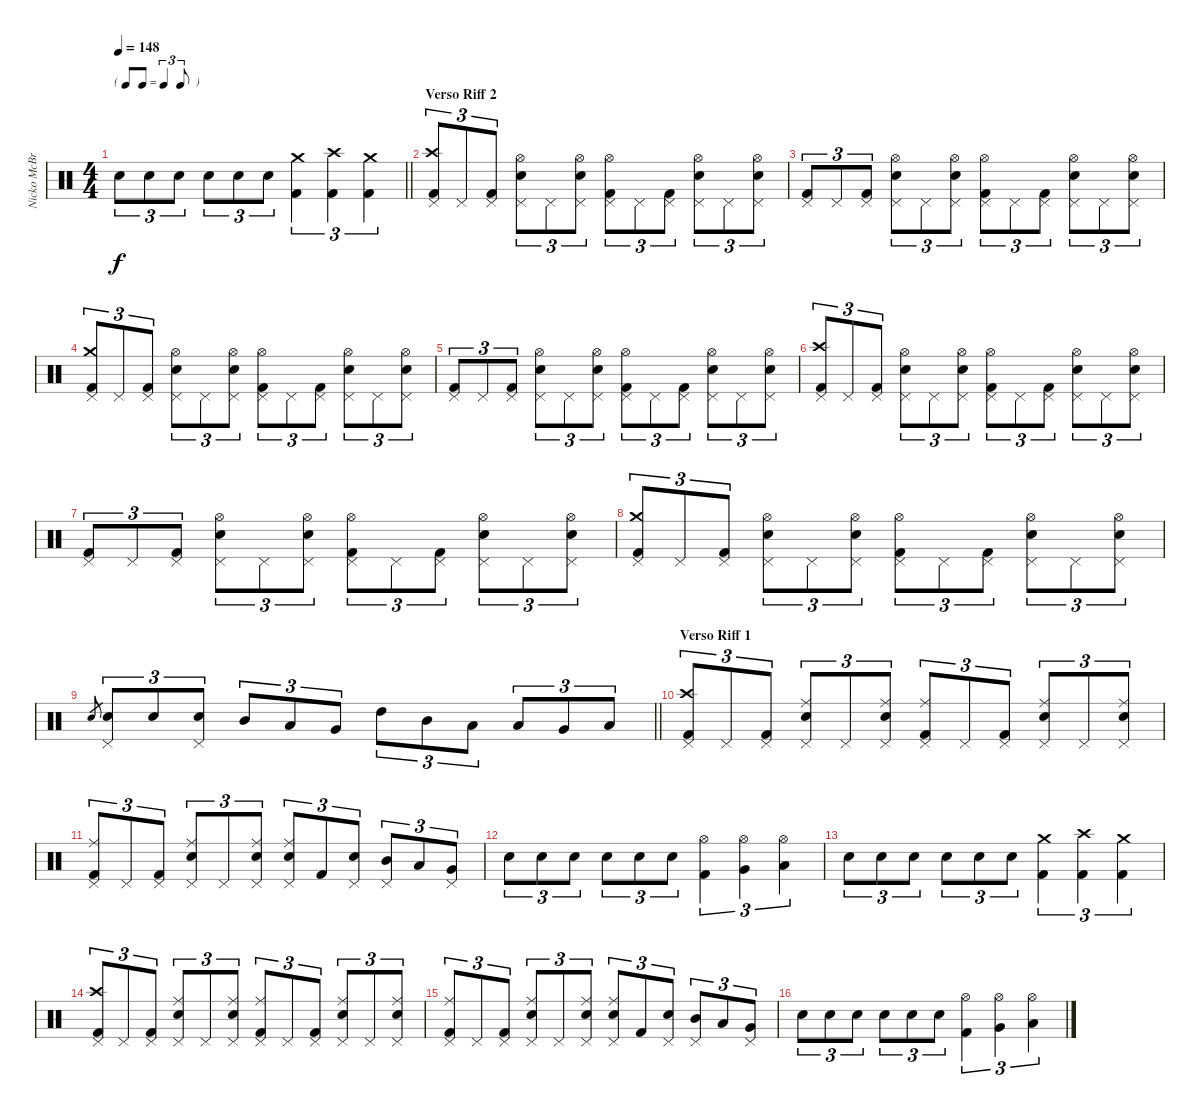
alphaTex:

\track ("Nicko McBrain" "Nicko McBr") {instrument percussion}
\staff {score}
\articulation defaults
\ts (4 4)
\tf triplet8th
\tempo 148
\clef neutral
\barLineRight lightlight
\ks c "Snare (hit) 2".8{tu (3 2) dy f} "Snare (hit) 2".8{tu (3 2)} "Snare (hit) 2".8{tu (3 2)} "Snare (hit) 2".8{tu (3 2)} "Snare (hit) 2".8{tu (3 2)} "Snare (hit) 2".8{tu (3 2)}
("Kick (hit) 2" "Crash medium (hit)").4{tu (3 2)} ("Kick (hit) 2" "Crash high (hit)").4{tu (3 2)} ("Kick (hit) 2" "Crash medium (hit)").4{tu (3 2)} |
\section ("" "Verso Riff 2")
("Kick (hit) 2" "Pedal Hi-Hat (hit)" "Crash high (hit)").8{tu (3 2)} "Pedal Hi-Hat (hit)".8{tu (3 2)} ("Kick (hit) 2" "Pedal Hi-Hat (hit)").8{tu (3 2)} ("Snare (hit) 2" "Pedal Hi-Hat (hit)" "Hi-Hat (open)").8{tu (3 2)} "Pedal Hi-Hat (hit)".8{tu (3 2)} ("Snare (hit) 2" "Pedal Hi-Hat (hit)" "Hi-Hat (open)").8{tu (3 2)} ("Kick (hit) 2" "Pedal Hi-Hat (hit)" "Hi-Hat (open)").8{tu (3 2)} "Pedal Hi-Hat (hit)".8{tu (3 2)} ("Kick (hit) 2" "Pedal Hi-Hat (hit)").8{tu (3 2)} ("Snare (hit) 2" "Pedal Hi-Hat (hit)" "Hi-Hat (open)").8{tu (3 2)} "Pedal Hi-Hat (hit)".8{tu (3 2)} ("Snare (hit) 2" "Pedal Hi-Hat (hit)" "Hi-Hat (open)").8{tu (3 2)} |
("Kick (hit) 2" "Pedal Hi-Hat (hit)").8{tu (3 2)} "Pedal Hi-Hat (hit)".8{tu (3 2)} ("Kick (hit) 2" "Pedal Hi-Hat (hit)").8{tu (3 2)} ("Snare (hit) 2" "Pedal Hi-Hat (hit)" "Hi-Hat (open)").8{tu (3 2)} "Pedal Hi-Hat (hit)".8{tu (3 2)} ("Snare (hit) 2" "Pedal Hi-Hat (hit)" "Hi-Hat (open)").8{tu (3 2)} ("Kick (hit) 2" "Pedal Hi-Hat (hit)" "Hi-Hat (open)").8{tu (3 2)} "Pedal Hi-Hat (hit)".8{tu (3 2)} ("Kick (hit) 2" "Pedal Hi-Hat (hit)").8{tu (3 2)} ("Snare (hit) 2" "Pedal Hi-Hat (hit)" "Hi-Hat (open)").8{tu (3 2)} "Pedal Hi-Hat (hit)".8{tu (3 2)} ("Snare (hit) 2" "Pedal Hi-Hat (hit)" "Hi-Hat (open)").8{tu (3 2)} |
("Kick (hit) 2" "Pedal Hi-Hat (hit)" "Crash medium (hit)").8{tu (3 2)} "Pedal Hi-Hat (hit)".8{tu (3 2)} ("Kick (hit) 2" "Pedal Hi-Hat (hit)").8{tu (3 2)} ("Snare (hit) 2" "Pedal Hi-Hat (hit)" "Hi-Hat (open)").8{tu (3 2)} "Pedal Hi-Hat (hit)".8{tu (3 2)} ("Snare (hit) 2" "Pedal Hi-Hat (hit)" "Hi-Hat (open)").8{tu (3 2)} ("Kick (hit) 2" "Pedal Hi-Hat (hit)" "Hi-Hat (open)").8{tu (3 2)} "Pedal Hi-Hat (hit)".8{tu (3 2)} ("Kick (hit) 2" "Pedal Hi-Hat (hit)").8{tu (3 2)} ("Snare (hit) 2" "Pedal Hi-Hat (hit)" "Hi-Hat (open)").8{tu (3 2)} "Pedal Hi-Hat (hit)".8{tu (3 2)} ("Snare (hit) 2" "Pedal Hi-Hat (hit)" "Hi-Hat (open)").8{tu (3 2)} |
("Kick (hit) 2" "Pedal Hi-Hat (hit)").8{tu (3 2)} "Pedal Hi-Hat (hit)".8{tu (3 2)} ("Kick (hit) 2" "Pedal Hi-Hat (hit)").8{tu (3 2)} ("Snare (hit) 2" "Pedal Hi-Hat (hit)" "Hi-Hat (open)").8{tu (3 2)} "Pedal Hi-Hat (hit)".8{tu (3 2)} ("Snare (hit) 2" "Pedal Hi-Hat (hit)" "Hi-Hat (open)").8{tu (3 2)} ("Kick (hit) 2" "Pedal Hi-Hat (hit)" "Hi-Hat (open)").8{tu (3 2)} "Pedal Hi-Hat (hit)".8{tu (3 2)} ("Kick (hit) 2" "Pedal Hi-Hat (hit)").8{tu (3 2)} ("Snare (hit) 2" "Pedal Hi-Hat (hit)" "Hi-Hat (open)").8{tu (3 2)} "Pedal Hi-Hat (hit)".8{tu (3 2)} ("Snare (hit) 2" "Pedal Hi-Hat (hit)" "Hi-Hat (open)").8{tu (3 2)} |
("Kick (hit) 2" "Pedal Hi-Hat (hit)" "Crash high (hit)").8{tu (3 2)} "Pedal Hi-Hat (hit)".8{tu (3 2)} ("Kick (hit) 2" "Pedal Hi-Hat (hit)").8{tu (3 2)} ("Snare (hit) 2" "Pedal Hi-Hat (hit)" "Hi-Hat (open)").8{tu (3 2)} "Pedal Hi-Hat (hit)".8{tu (3 2)} ("Snare (hit) 2" "Pedal Hi-Hat (hit)" "Hi-Hat (open)").8{tu (3 2)} ("Kick (hit) 2" "Pedal Hi-Hat (hit)" "Hi-Hat (open)").8{tu (3 2)} "Pedal Hi-Hat (hit)".8{tu (3 2)} ("Kick (hit) 2" "Pedal Hi-Hat (hit)").8{tu (3 2)} ("Snare (hit) 2" "Pedal Hi-Hat (hit)" "Hi-Hat (open)").8{tu (3 2)} "Pedal Hi-Hat (hit)".8{tu (3 2)} ("Snare (hit) 2" "Pedal Hi-Hat (hit)" "Hi-Hat (open)").8{tu (3 2)} |
("Kick (hit) 2" "Pedal Hi-Hat (hit)").8{tu (3 2)} "Pedal Hi-Hat (hit)".8{tu (3 2)} ("Kick (hit) 2" "Pedal Hi-Hat (hit)").8{tu (3 2)} ("Snare (hit) 2" "Pedal Hi-Hat (hit)" "Hi-Hat (open)").8{tu (3 2)} "Pedal Hi-Hat (hit)".8{tu (3 2)} ("Snare (hit) 2" "Pedal Hi-Hat (hit)" "Hi-Hat (open)").8{tu (3 2)} ("Kick (hit) 2" "Pedal Hi-Hat (hit)" "Hi-Hat (open)").8{tu (3 2)} "Pedal Hi-Hat (hit)".8{tu (3 2)} ("Kick (hit) 2" "Pedal Hi-Hat (hit)").8{tu (3 2)} ("Snare (hit) 2" "Pedal Hi-Hat (hit)" "Hi-Hat (open)").8{tu (3 2)} "Pedal Hi-Hat (hit)".8{tu (3 2)} ("Snare (hit) 2" "Pedal Hi-Hat (hit)" "Hi-Hat (open)").8{tu (3 2)} |
("Kick (hit) 2" "Pedal Hi-Hat (hit)" "Crash medium (hit)").8{tu (3 2)} "Pedal Hi-Hat (hit)".8{tu (3 2)} ("Kick (hit) 2" "Pedal Hi-Hat (hit)").8{tu (3 2)} ("Snare (hit) 2" "Pedal Hi-Hat (hit)" "Hi-Hat (open)").8{tu (3 2)} "Pedal Hi-Hat (hit)".8{tu (3 2)} ("Snare (hit) 2" "Pedal Hi-Hat (hit)" "Hi-Hat (open)").8{tu (3 2)} ("Kick (hit) 2" "Pedal Hi-Hat (hit)" "Hi-Hat (open)").8{tu (3 2)} "Pedal Hi-Hat (hit)".8{tu (3 2)} ("Kick (hit) 2" "Pedal Hi-Hat (hit)").8{tu (3 2)} ("Snare (hit) 2" "Pedal Hi-Hat (hit)" "Hi-Hat (open)").8{tu (3 2)} "Pedal Hi-Hat (hit)".8{tu (3 2)} ("Snare (hit) 2" "Pedal Hi-Hat (hit)" "Hi-Hat (open)").8{tu (3 2)} |
\barLineRight lightlight "Snare (hit) 2".8{gr}
("Snare (hit) 2" "Pedal Hi-Hat (hit)").8{tu (3 2)} "Snare (hit) 2".8{tu (3 2)} ("Snare (hit) 2" "Pedal Hi-Hat (hit)").8{tu (3 2)} "Mid Tom (hit)".8{tu (3 2)} "Low Tom (hit)".8{tu (3 2)} "Very Low Tom (hit)".8{tu (3 2)} "High Tom (hit)".8{tu (3 2)} "Mid Tom (hit)".8{tu (3 2)} "Low Tom (hit)".8{tu (3 2)} "Low Tom (hit)".8{tu (3 2)} "Very Low Tom (hit)".8{tu (3 2)} "Low Floor Tom (hit)".8{tu (3 2)} |
\section ("" "Verso Riff 1")
("Kick (hit) 2" "Pedal Hi-Hat (hit)" "Crash high (hit)").8{tu (3 2)} "Pedal Hi-Hat (hit)".8{tu (3 2)} ("Kick (hit) 2" "Pedal Hi-Hat (hit)").8{tu (3 2)} ("Snare (hit) 2" "Pedal Hi-Hat (hit)" "Ride (middle)").8{tu (3 2)} "Pedal Hi-Hat (hit)".8{tu (3 2)} ("Snare (hit) 2" "Pedal Hi-Hat (hit)" "Ride (middle)").8{tu (3 2)} ("Kick (hit) 2" "Pedal Hi-Hat (hit)" "Ride (middle)").8{tu (3 2)} "Pedal Hi-Hat (hit)".8{tu (3 2)} ("Kick (hit) 2" "Pedal Hi-Hat (hit)").8{tu (3 2)} ("Snare (hit) 2" "Pedal Hi-Hat (hit)" "Ride (middle)").8{tu (3 2)} "Pedal Hi-Hat (hit)".8{tu (3 2)} ("Snare (hit) 2" "Pedal Hi-Hat (hit)" "Ride (middle)").8{tu (3 2)} |
("Kick (hit) 2" "Pedal Hi-Hat (hit)" "Ride (middle)").8{tu (3 2)} "Pedal Hi-Hat (hit)".8{tu (3 2)} ("Kick (hit) 2" "Pedal Hi-Hat (hit)").8{tu (3 2)} ("Snare (hit) 2" "Pedal Hi-Hat (hit)" "Ride (middle)").8{tu (3 2)} "Pedal Hi-Hat (hit)".8{tu (3 2)} ("Snare (hit) 2" "Pedal Hi-Hat (hit)" "Ride (middle)").8{tu (3 2)} ("Snare (hit) 2" "Pedal Hi-Hat (hit)" "Ride (middle)").8{tu (3 2)} "Kick (hit) 2".8{tu (3 2)} ("Snare (hit) 2" "Pedal Hi-Hat (hit)").8{tu (3 2)} ("Mid Tom (hit)" "Pedal Hi-Hat (hit)").8{tu (3 2)} "Low Tom (hit)".8{tu (3 2)} ("Very Low Tom (hit)" "Pedal Hi-Hat (hit)").8{tu (3 2)} |
"Snare (hit) 2".8{tu (3 2)} "Snare (hit) 2".8{tu (3 2)} "Snare (hit) 2".8{tu (3 2)} "Snare (hit) 2".8{tu (3 2)} "Snare (hit) 2".8{tu (3 2)} "Snare (hit) 2".8{tu (3 2)} ("Kick (hit) 2" "Hi-Hat (open)").4{tu (3 2)} ("Very Low Tom (hit)" "Hi-Hat (open)").4{tu (3 2)} ("Low Floor Tom (hit)" "Hi-Hat (open)").4{tu (3 2)} |
"Snare (hit) 2".8{tu (3 2)} "Snare (hit) 2".8{tu (3 2)} "Snare (hit) 2".8{tu (3 2)} "Snare (hit) 2".8{tu (3 2)} "Snare (hit) 2".8{tu (3 2)} "Snare (hit) 2".8{tu (3 2)} ("Kick (hit) 2" "Crash medium (hit)").4{tu (3 2)} ("Kick (hit) 2" "Crash high (hit)").4{tu (3 2)} ("Kick (hit) 2" "Crash medium (hit)").4{tu (3 2)} |
("Kick (hit) 2" "Pedal Hi-Hat (hit)" "Crash high (hit)").8{tu (3 2)} "Pedal Hi-Hat (hit)".8{tu (3 2)} ("Kick (hit) 2" "Pedal Hi-Hat (hit)").8{tu (3 2)} ("Snare (hit) 2" "Pedal Hi-Hat (hit)" "Ride (middle)").8{tu (3 2)} "Pedal Hi-Hat (hit)".8{tu (3 2)} ("Snare (hit) 2" "Pedal Hi-Hat (hit)" "Ride (middle)").8{tu (3 2)} ("Kick (hit) 2" "Pedal Hi-Hat (hit)" "Ride (middle)").8{tu (3 2)} "Pedal Hi-Hat (hit)".8{tu (3 2)} ("Kick (hit) 2" "Pedal Hi-Hat (hit)").8{tu (3 2)} ("Snare (hit) 2" "Pedal Hi-Hat (hit)" "Ride (middle)").8{tu (3 2)} "Pedal Hi-Hat (hit)".8{tu (3 2)} ("Snare (hit) 2" "Pedal Hi-Hat (hit)" "Ride (middle)").8{tu (3 2)} |
("Kick (hit) 2" "Pedal Hi-Hat (hit)" "Ride (middle)").8{tu (3 2)} "Pedal Hi-Hat (hit)".8{tu (3 2)} ("Kick (hit) 2" "Pedal Hi-Hat (hit)").8{tu (3 2)} ("Snare (hit) 2" "Pedal Hi-Hat (hit)" "Ride (middle)").8{tu (3 2)} "Pedal Hi-Hat (hit)".8{tu (3 2)} ("Snare (hit) 2" "Pedal Hi-Hat (hit)" "Ride (middle)").8{tu (3 2)} ("Snare (hit) 2" "Pedal Hi-Hat (hit)" "Ride (middle)").8{tu (3 2)} "Kick (hit) 2".8{tu (3 2)} ("Snare (hit) 2" "Pedal Hi-Hat (hit)").8{tu (3 2)} ("Mid Tom (hit)" "Pedal Hi-Hat (hit)").8{tu (3 2)} "Low Tom (hit)".8{tu (3 2)} ("Very Low Tom (hit)" "Pedal Hi-Hat (hit)").8{tu (3 2)} |
"Snare (hit) 2".8{tu (3 2)} "Snare (hit) 2".8{tu (3 2)} "Snare (hit) 2".8{tu (3 2)} "Snare (hit) 2".8{tu (3 2)} "Snare (hit) 2".8{tu (3 2)} "Snare (hit) 2".8{tu (3 2)} ("Kick (hit) 2" "Hi-Hat (open)").4{tu (3 2)} ("Very Low Tom (hit)" "Hi-Hat (open)").4{tu (3 2)} ("Low Floor Tom (hit)" "Hi-Hat (open)").4{tu (3 2)}
